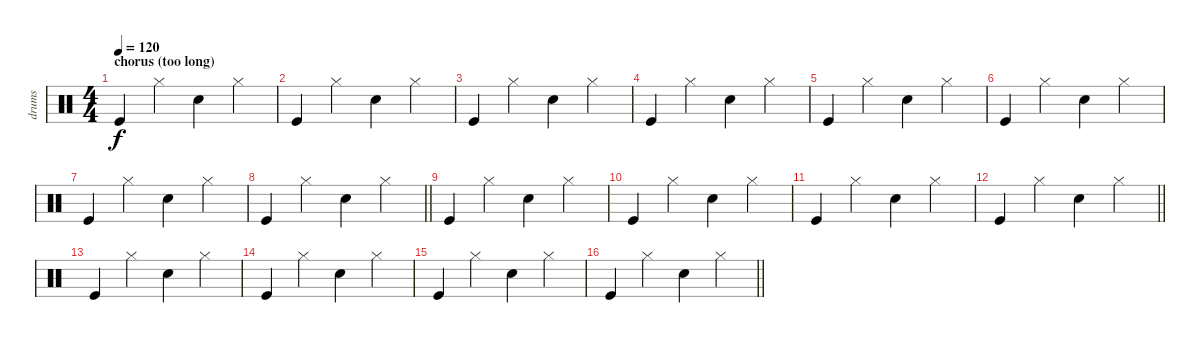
\track ("drums" "drums") {instrument percussion}
\staff {score}
\articulation defaults
\ts (4 4)
\section ("" "chorus (too long)")
\tempo 120
\clef neutral
\ks c "Kick (hit)".4{dy f} "Hi-Hat (closed)".4 "Snare (hit) 2".4 "Hi-Hat (closed)".4
|
"Kick (hit)".4 "Hi-Hat (closed)".4 "Snare (hit) 2".4 "Hi-Hat (closed)".4 |
"Kick (hit)".4 "Hi-Hat (closed)".4 "Snare (hit) 2".4 "Hi-Hat (closed)".4 |
"Kick (hit)".4 "Hi-Hat (closed)".4 "Snare (hit) 2".4 "Hi-Hat (closed)".4 |
"Kick (hit)".4 "Hi-Hat (closed)".4 "Snare (hit) 2".4 "Hi-Hat (closed)".4 |
"Kick (hit)".4 "Hi-Hat (closed)".4 "Snare (hit) 2".4 "Hi-Hat (closed)".4 |
"Kick (hit)".4 "Hi-Hat (closed)".4 "Snare (hit) 2".4 "Hi-Hat (closed)".4 |
\barLineRight lightlight "Kick (hit)".4 "Hi-Hat (closed)".4 "Snare (hit) 2".4 "Hi-Hat (closed)".4
|
"Kick (hit)".4 "Hi-Hat (closed)".4 "Snare (hit) 2".4 "Hi-Hat (closed)".4 |
"Kick (hit)".4 "Hi-Hat (closed)".4 "Snare (hit) 2".4 "Hi-Hat (closed)".4 |
"Kick (hit)".4 "Hi-Hat (closed)".4 "Snare (hit) 2".4 "Hi-Hat (closed)".4 |
\barLineRight lightlight "Kick (hit)".4 "Hi-Hat (closed)".4 "Snare (hit) 2".4 "Hi-Hat (closed)".4
|
"Kick (hit)".4 "Hi-Hat (closed)".4 "Snare (hit) 2".4 "Hi-Hat (closed)".4 |
"Kick (hit)".4 "Hi-Hat (closed)".4 "Snare (hit) 2".4 "Hi-Hat (closed)".4 |
"Kick (hit)".4 "Hi-Hat (closed)".4 "Snare (hit) 2".4 "Hi-Hat (closed)".4 |
\barLineRight lightlight "Kick (hit)".4 "Hi-Hat (closed)".4 "Snare (hit) 2".4 "Hi-Hat (closed)".4
